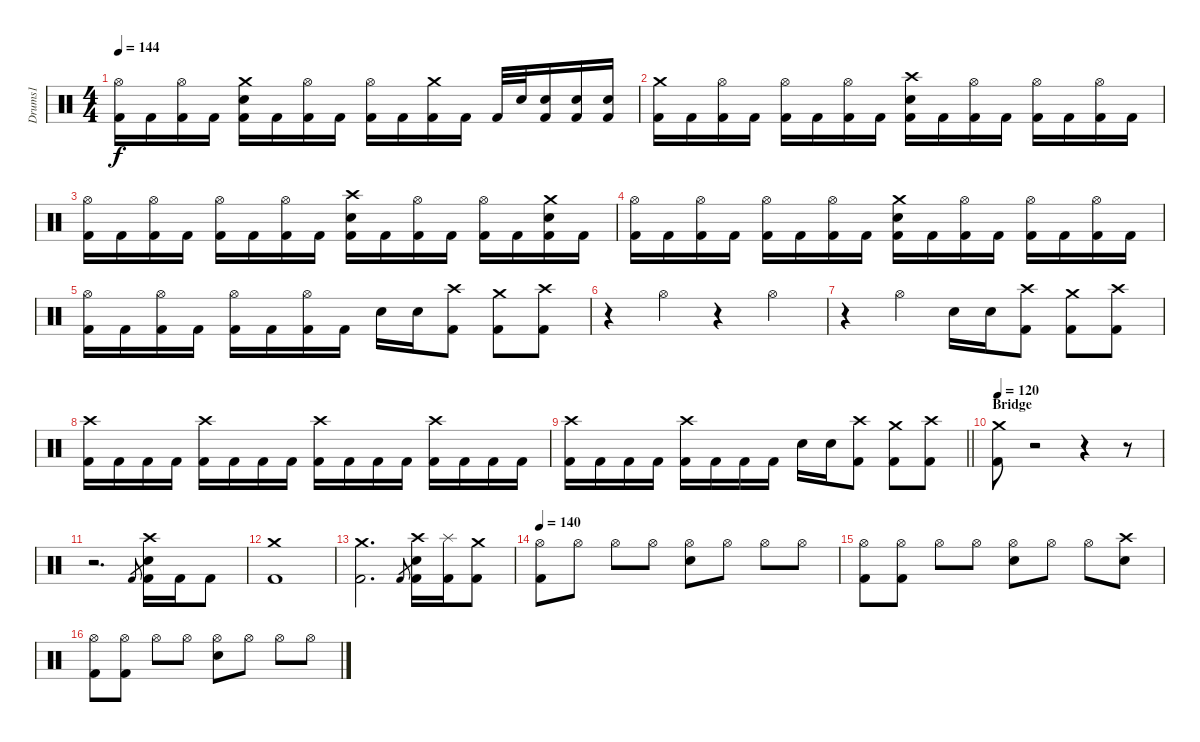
\track ("Drums1" "Drums1") {instrument percussion}
\staff {score}
\articulation defaults
\ts (4 4)
\tempo 144
\clef neutral
\ks c
("Hi-Hat (open)" "Kick (hit) 2").16{dy f} "Kick (hit) 2".16 ("Hi-Hat (open)" "Kick (hit) 2").16 "Kick (hit) 2".16 ("Crash medium (hit)" "Electric Snare (hit)" "Kick (hit) 2").16 "Kick (hit) 2".16 ("Hi-Hat (open)" "Kick (hit) 2").16 "Kick (hit) 2".16 ("Hi-Hat (open)" "Kick (hit) 2").16 "Kick (hit) 2".16 ("Crash medium (hit)" "Kick (hit) 2").16 "Kick (hit) 2".16 "Kick (hit) 2".32 "Electric Snare (hit)".32 ("Electric Snare (hit)" "Kick (hit) 2").16 ("Electric Snare (hit)" "Kick (hit) 2").16 ("Electric Snare (hit)" "Kick (hit) 2").16 |
("Crash medium (hit)" "Kick (hit) 2").16 "Kick (hit) 2".16 ("Hi-Hat (open)" "Kick (hit) 2").16 "Kick (hit) 2".16 ("Hi-Hat (open)" "Kick (hit) 2").16 "Kick (hit) 2".16 ("Hi-Hat (open)" "Kick (hit) 2").16 "Kick (hit) 2".16 ("Crash high (hit)" "Electric Snare (hit)" "Kick (hit) 2").16 "Kick (hit) 2".16 ("Hi-Hat (open)" "Kick (hit) 2").16 "Kick (hit) 2".16 ("Hi-Hat (open)" "Kick (hit) 2").16 "Kick (hit) 2".16 ("Hi-Hat (open)" "Kick (hit) 2").16 "Kick (hit) 2".16 |
("Hi-Hat (open)" "Kick (hit) 2").16 "Kick (hit) 2".16 ("Hi-Hat (open)" "Kick (hit) 2").16 "Kick (hit) 2".16 ("Hi-Hat (open)" "Kick (hit) 2").16 "Kick (hit) 2".16 ("Hi-Hat (open)" "Kick (hit) 2").16 "Kick (hit) 2".16 ("Crash high (hit)" "Electric Snare (hit)" "Kick (hit) 2").16 "Kick (hit) 2".16 ("Hi-Hat (open)" "Kick (hit) 2").16 "Kick (hit) 2".16 ("Hi-Hat (open)" "Kick (hit) 2").16 "Kick (hit) 2".16 ("Crash medium (hit)" "Electric Snare (hit)" "Kick (hit) 2").16 "Kick (hit) 2".16 |
("Hi-Hat (open)" "Kick (hit) 2").16 "Kick (hit) 2".16 ("Hi-Hat (open)" "Kick (hit) 2").16 "Kick (hit) 2".16 ("Hi-Hat (open)" "Kick (hit) 2").16 "Kick (hit) 2".16 ("Hi-Hat (open)" "Kick (hit) 2").16 "Kick (hit) 2".16 ("Crash medium (hit)" "Electric Snare (hit)" "Kick (hit) 2").16 "Kick (hit) 2".16 ("Hi-Hat (open)" "Kick (hit) 2").16 "Kick (hit) 2".16 ("Hi-Hat (open)" "Kick (hit) 2").16 "Kick (hit) 2".16 ("Hi-Hat (open)" "Kick (hit) 2").16 "Kick (hit) 2".16 |
("Hi-Hat (open)" "Kick (hit) 2").16 "Kick (hit) 2".16 ("Hi-Hat (open)" "Kick (hit) 2").16 "Kick (hit) 2".16 ("Hi-Hat (open)" "Kick (hit) 2").16 "Kick (hit) 2".16 ("Hi-Hat (open)" "Kick (hit) 2").16 "Kick (hit) 2".16 "Electric Snare (hit)".16 "Electric Snare (hit)".16 ("Crash high (hit)" "Kick (hit) 2").8 ("Crash medium (hit)" "Kick (hit) 2").8 ("Crash high (hit)" "Kick (hit) 2").8 |
r.4 "Hi-Hat (open)".4 r.4 "Hi-Hat (open)".4 |
r.4 "Hi-Hat (open)".4 "Electric Snare (hit)".16 "Electric Snare (hit)".16 ("Crash high (hit)" "Kick (hit) 2").8 ("Crash medium (hit)" "Kick (hit) 2").8 ("Crash high (hit)" "Kick (hit) 2").8 |
("Crash high (hit)" "Kick (hit) 2").16 "Kick (hit) 2".16 "Kick (hit) 2".16 "Kick (hit) 2".16 ("Crash high (hit)" "Kick (hit) 2").16 "Kick (hit) 2".16 "Kick (hit) 2".16 "Kick (hit) 2".16 ("Crash high (hit)" "Kick (hit) 2").16 "Kick (hit) 2".16 "Kick (hit) 2".16 "Kick (hit) 2".16 ("Crash high (hit)" "Kick (hit) 2").16 "Kick (hit) 2".16 "Kick (hit) 2".16 "Kick (hit) 2".16 |
\barLineRight lightlight
("Crash high (hit)" "Kick (hit) 2").16 "Kick (hit) 2".16 "Kick (hit) 2".16 "Kick (hit) 2".16 ("Crash high (hit)" "Kick (hit) 2").16 "Kick (hit) 2".16 "Kick (hit) 2".16 "Kick (hit) 2".16 "Electric Snare (hit)".16 "Electric Snare (hit)".16 ("Crash high (hit)" "Kick (hit) 2").8 ("Crash medium (hit)" "Kick (hit) 2").8 ("Crash high (hit)" "Kick (hit) 2").8 |
\section ("" "Bridge")
\tempo 120
("Crash medium (hit)" "Kick (hit) 2").8 r.2 r.4 r.8 |
r.2{d} "Kick (hit) 2".8{gr} ("Crash high (hit)" "Electric Snare (hit)" "Kick (hit) 2").16 "Kick (hit) 2".16 "Kick (hit) 2".8 |
("Crash medium (hit)" "Kick (hit) 2").1 |
("Crash medium (hit)" "Kick (hit) 2").2{d} "Kick (hit) 2".8{gr} ("Crash high (hit)" "Electric Snare (hit)" "Kick (hit) 2").16 ("Splash (hit)" "Kick (hit) 2").16 ("Crash medium (hit)" "Kick (hit) 2").8 |
\tempo 140
("Hi-Hat (open)" "Kick (hit) 2").8 "Hi-Hat (open)".8 "Hi-Hat (open)".8 "Hi-Hat (open)".8 ("Hi-Hat (open)" "Electric Snare (hit)").8 "Hi-Hat (open)".8 "Hi-Hat (open)".8 "Hi-Hat (open)".8 |
("Hi-Hat (open)" "Kick (hit) 2").8 ("Hi-Hat (open)" "Kick (hit) 2").8 "Hi-Hat (open)".8 "Hi-Hat (open)".8 ("Hi-Hat (open)" "Electric Snare (hit)").8 "Hi-Hat (open)".8 "Hi-Hat (open)".8 ("Crash high (hit)" "Electric Snare (hit)").8 |
("Hi-Hat (open)" "Kick (hit) 2").8 ("Hi-Hat (open)" "Kick (hit) 2").8 "Hi-Hat (open)".8 "Hi-Hat (open)".8 ("Hi-Hat (open)" "Electric Snare (hit)").8 "Hi-Hat (open)".8 "Hi-Hat (open)".8 "Hi-Hat (open)".8
